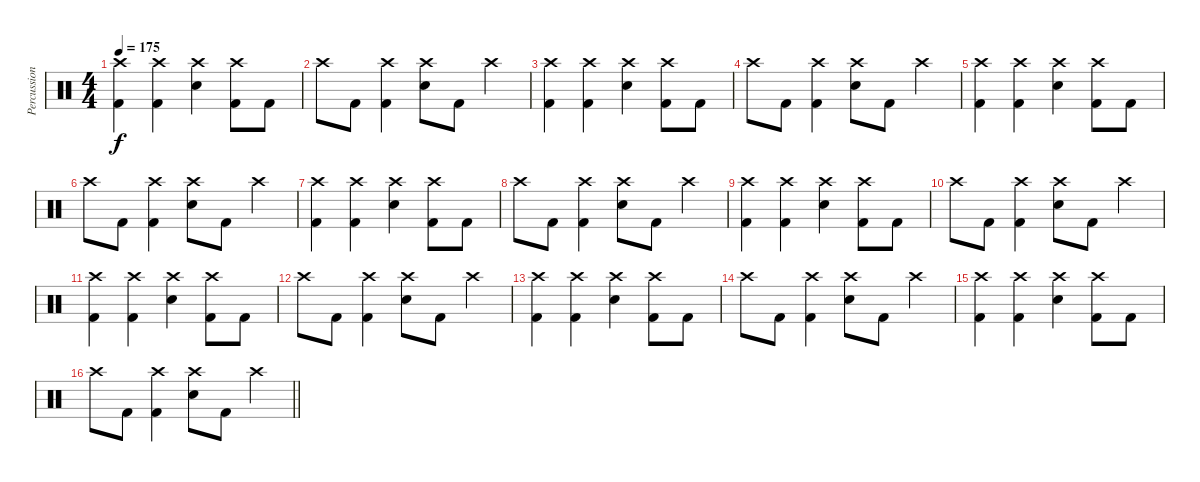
\track ("Percussion" "Percussion") {instrument percussion}
\staff {score}
\articulation defaults
\ts (4 4)
\tempo 175
\clef neutral
\ks c
("Crash high (hit)" "Kick (hit) 2").4{dy f} ("Crash high (hit)" "Kick (hit) 2").4 ("Crash high (hit)" "Snare (hit) 2").4 ("Crash high (hit)" "Kick (hit) 2").8 "Kick (hit) 2".8 |
"Crash high (hit)".8 "Kick (hit) 2".8 ("Crash high (hit)" "Kick (hit) 2").4 ("Crash high (hit)" "Snare (hit) 2").8 "Kick (hit) 2".8 "Crash high (hit)".4 |
("Crash high (hit)" "Kick (hit) 2").4 ("Crash high (hit)" "Kick (hit) 2").4 ("Crash high (hit)" "Snare (hit) 2").4 ("Crash high (hit)" "Kick (hit) 2").8 "Kick (hit) 2".8 |
"Crash high (hit)".8 "Kick (hit) 2".8 ("Crash high (hit)" "Kick (hit) 2").4 ("Crash high (hit)" "Snare (hit) 2").8 "Kick (hit) 2".8 "Crash high (hit)".4 |
("Crash high (hit)" "Kick (hit) 2").4 ("Crash high (hit)" "Kick (hit) 2").4 ("Crash high (hit)" "Snare (hit) 2").4 ("Crash high (hit)" "Kick (hit) 2").8 "Kick (hit) 2".8 |
"Crash high (hit)".8 "Kick (hit) 2".8 ("Crash high (hit)" "Kick (hit) 2").4 ("Crash high (hit)" "Snare (hit) 2").8 "Kick (hit) 2".8 "Crash high (hit)".4 |
("Crash high (hit)" "Kick (hit) 2").4 ("Crash high (hit)" "Kick (hit) 2").4 ("Crash high (hit)" "Snare (hit) 2").4 ("Crash high (hit)" "Kick (hit) 2").8 "Kick (hit) 2".8 |
"Crash high (hit)".8 "Kick (hit) 2".8 ("Crash high (hit)" "Kick (hit) 2").4 ("Crash high (hit)" "Snare (hit) 2").8 "Kick (hit) 2".8 "Crash high (hit)".4 |
("Crash high (hit)" "Kick (hit) 2").4 ("Crash high (hit)" "Kick (hit) 2").4 ("Crash high (hit)" "Snare (hit) 2").4 ("Crash high (hit)" "Kick (hit) 2").8 "Kick (hit) 2".8 |
"Crash high (hit)".8 "Kick (hit) 2".8 ("Crash high (hit)" "Kick (hit) 2").4 ("Crash high (hit)" "Snare (hit) 2").8 "Kick (hit) 2".8 "Crash high (hit)".4 |
("Crash high (hit)" "Kick (hit) 2").4 ("Crash high (hit)" "Kick (hit) 2").4 ("Crash high (hit)" "Snare (hit) 2").4 ("Crash high (hit)" "Kick (hit) 2").8 "Kick (hit) 2".8 |
"Crash high (hit)".8 "Kick (hit) 2".8 ("Crash high (hit)" "Kick (hit) 2").4 ("Crash high (hit)" "Snare (hit) 2").8 "Kick (hit) 2".8 "Crash high (hit)".4 |
("Crash high (hit)" "Kick (hit) 2").4 ("Crash high (hit)" "Kick (hit) 2").4 ("Crash high (hit)" "Snare (hit) 2").4 ("Crash high (hit)" "Kick (hit) 2").8 "Kick (hit) 2".8 |
"Crash high (hit)".8 "Kick (hit) 2".8 ("Crash high (hit)" "Kick (hit) 2").4 ("Crash high (hit)" "Snare (hit) 2").8 "Kick (hit) 2".8 "Crash high (hit)".4 |
("Crash high (hit)" "Kick (hit) 2").4 ("Crash high (hit)" "Kick (hit) 2").4 ("Crash high (hit)" "Snare (hit) 2").4 ("Crash high (hit)" "Kick (hit) 2").8 "Kick (hit) 2".8 |
\barLineRight lightlight "Crash high (hit)".8 "Kick (hit) 2".8
("Crash high (hit)" "Kick (hit) 2").4 ("Crash high (hit)" "Snare (hit) 2").8 "Kick (hit) 2".8 "Crash high (hit)".4
